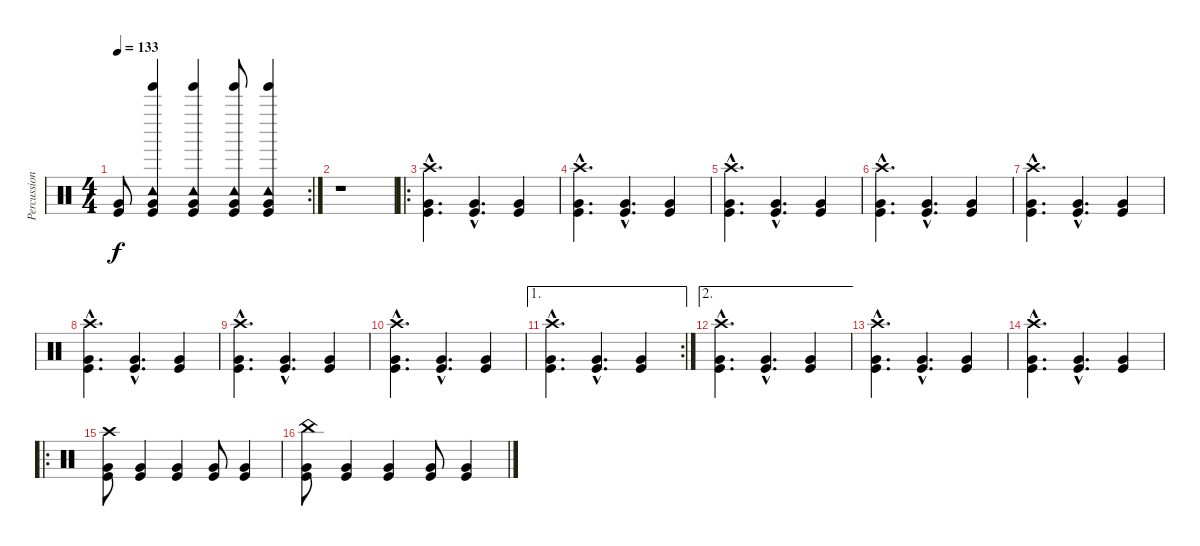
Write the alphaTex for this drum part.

\track ("Percussion" "Percussion") {instrument percussion}
\staff {score}
\articulation defaults
\rc 2
\ts (4 4)
\tempo 133
\clef neutral
\ks c
("Very Low Tom (hit)" "Kick (hit)").8{dy f} ("Tinkle Bell (hit)" "Tambourine (hit)" "Very Low Tom (hit)" "Kick (hit)").4 ("Tinkle Bell (hit)" "Tambourine (hit)" "Very Low Tom (hit)" "Kick (hit)").4 ("Tinkle Bell (hit)" "Tambourine (hit)" "Very Low Tom (hit)" "Kick (hit)").8 ("Tinkle Bell (hit)" "Tambourine (hit)" "Very Low Tom (hit)" "Kick (hit)").4 |
r.1 |
\ro
("Crash high (hit)"{hac} "Very Low Tom (hit)"{hac} "Kick (hit)"{hac}).4{d} ("Very Low Tom (hit)"{hac} "Kick (hit)"{hac}).4{d} ("Very Low Tom (hit)" "Kick (hit)").4 |
("Crash high (hit)"{hac} "Very Low Tom (hit)"{hac} "Kick (hit)"{hac}).4{d} ("Very Low Tom (hit)"{hac} "Kick (hit)"{hac}).4{d} ("Very Low Tom (hit)" "Kick (hit)").4 |
("Crash high (hit)"{hac} "Very Low Tom (hit)"{hac} "Kick (hit)"{hac}).4{d} ("Very Low Tom (hit)"{hac} "Kick (hit)"{hac}).4{d} ("Very Low Tom (hit)" "Kick (hit)").4 |
("Crash high (hit)"{hac} "Very Low Tom (hit)"{hac} "Kick (hit)"{hac}).4{d} ("Very Low Tom (hit)"{hac} "Kick (hit)"{hac}).4{d} ("Very Low Tom (hit)" "Kick (hit)").4 |
("Crash high (hit)"{hac} "Very Low Tom (hit)"{hac} "Kick (hit)"{hac}).4{d} ("Very Low Tom (hit)"{hac} "Kick (hit)"{hac}).4{d} ("Very Low Tom (hit)" "Kick (hit)").4 |
("Crash high (hit)"{hac} "Very Low Tom (hit)"{hac} "Kick (hit)"{hac}).4{d} ("Very Low Tom (hit)"{hac} "Kick (hit)"{hac}).4{d} ("Very Low Tom (hit)" "Kick (hit)").4 |
("Crash high (hit)"{hac} "Very Low Tom (hit)"{hac} "Kick (hit)"{hac}).4{d} ("Very Low Tom (hit)"{hac} "Kick (hit)"{hac}).4{d} ("Very Low Tom (hit)" "Kick (hit)").4 |
("Crash high (hit)"{hac} "Very Low Tom (hit)"{hac} "Kick (hit)"{hac}).4{d} ("Very Low Tom (hit)"{hac} "Kick (hit)"{hac}).4{d} ("Very Low Tom (hit)" "Kick (hit)").4 |
\ae 1
\rc 2
("Crash high (hit)"{hac} "Very Low Tom (hit)"{hac} "Kick (hit)"{hac}).4{d} ("Very Low Tom (hit)"{hac} "Kick (hit)"{hac}).4{d} ("Very Low Tom (hit)" "Kick (hit)").4 |
\ae 2
("Crash high (hit)"{hac} "Very Low Tom (hit)"{hac} "Kick (hit)"{hac}).4{d} ("Very Low Tom (hit)"{hac} "Kick (hit)"{hac}).4{d} ("Very Low Tom (hit)" "Kick (hit)").4 |
("Crash high (hit)"{hac} "Very Low Tom (hit)"{hac} "Kick (hit)"{hac}).4{d} ("Very Low Tom (hit)"{hac} "Kick (hit)"{hac}).4{d} ("Very Low Tom (hit)" "Kick (hit)").4 |
("Crash high (hit)"{hac} "Very Low Tom (hit)"{hac} "Kick (hit)"{hac}).4{d} ("Very Low Tom (hit)"{hac} "Kick (hit)"{hac}).4{d} ("Very Low Tom (hit)" "Kick (hit)").4 |
\ro
("Crash high (hit)" "Very Low Tom (hit)" "Kick (hit)").8 ("Very Low Tom (hit)" "Kick (hit)").4 ("Very Low Tom (hit)" "Kick (hit)").4 ("Very Low Tom (hit)" "Kick (hit)").8 ("Very Low Tom (hit)" "Kick (hit)").4 |
("China (hit)" "Very Low Tom (hit)" "Kick (hit)").8 ("Very Low Tom (hit)" "Kick (hit)").4 ("Very Low Tom (hit)" "Kick (hit)").4 ("Very Low Tom (hit)" "Kick (hit)").8 ("Very Low Tom (hit)" "Kick (hit)").4
